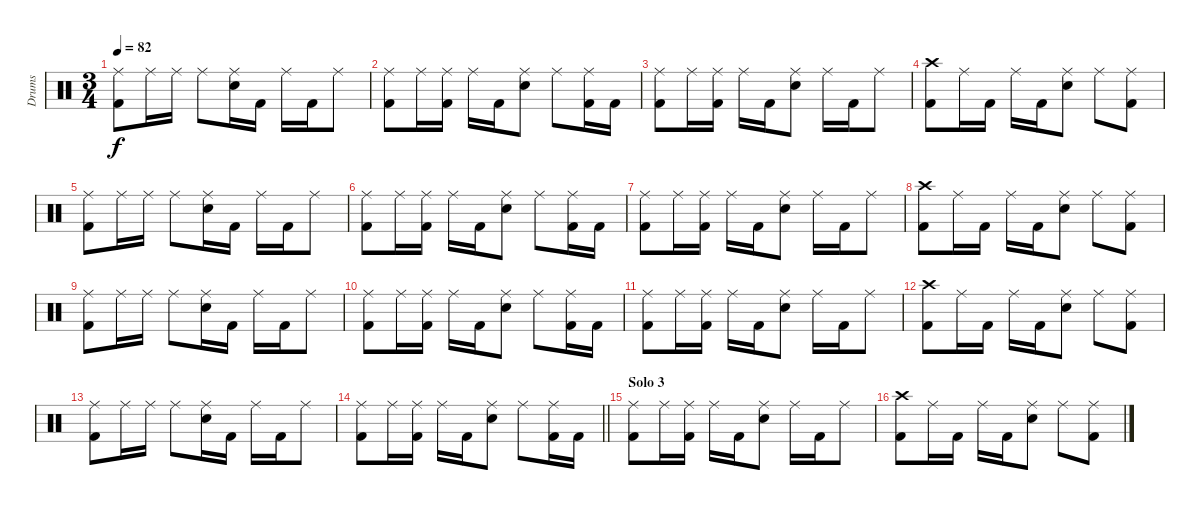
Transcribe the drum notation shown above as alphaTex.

\track ("Drums" "Drums") {instrument percussion}
\staff {score}
\articulation defaults
\ts (3 4)
\tempo 82
\clef neutral
\ks c
("Ride (middle)" "Kick (hit) 2").8{dy f} "Ride (middle)".16 "Ride (middle)".16 "Ride (middle)".8 ("Ride (middle)" "Electric Snare (hit)").16 "Kick (hit) 2".16 "Ride (middle)".16 "Kick (hit) 2".16 "Ride (middle)".8 |
("Ride (middle)" "Kick (hit) 2").8 "Ride (middle)".16 ("Ride (middle)" "Kick (hit) 2").16 "Ride (middle)".16 "Kick (hit) 2".16 ("Ride (middle)" "Electric Snare (hit)").8 "Ride (middle)".8 ("Ride (middle)" "Kick (hit) 2").16 "Kick (hit) 2".16 |
("Ride (middle)" "Kick (hit) 2").8 "Ride (middle)".16 ("Ride (middle)" "Kick (hit) 2").16 "Ride (middle)".16 "Kick (hit) 2".16 ("Ride (middle)" "Electric Snare (hit)").8 "Ride (middle)".16 "Kick (hit) 2".16 "Ride (middle)".8 |
("Crash high (hit)" "Kick (hit) 2").8 "Ride (middle)".16 "Kick (hit) 2".16 "Ride (middle)".16 "Kick (hit) 2".16 ("Ride (middle)" "Electric Snare (hit)").8 "Ride (middle)".8 ("Ride (middle)" "Kick (hit) 2").8 |
("Ride (middle)" "Kick (hit) 2").8 "Ride (middle)".16 "Ride (middle)".16 "Ride (middle)".8 ("Ride (middle)" "Electric Snare (hit)").16 "Kick (hit) 2".16 "Ride (middle)".16 "Kick (hit) 2".16 "Ride (middle)".8 |
("Ride (middle)" "Kick (hit) 2").8 "Ride (middle)".16 ("Ride (middle)" "Kick (hit) 2").16 "Ride (middle)".16 "Kick (hit) 2".16 ("Ride (middle)" "Electric Snare (hit)").8 "Ride (middle)".8 ("Ride (middle)" "Kick (hit) 2").16 "Kick (hit) 2".16 |
("Ride (middle)" "Kick (hit) 2").8 "Ride (middle)".16 ("Ride (middle)" "Kick (hit) 2").16 "Ride (middle)".16 "Kick (hit) 2".16 ("Ride (middle)" "Electric Snare (hit)").8 "Ride (middle)".16 "Kick (hit) 2".16 "Ride (middle)".8 |
("Crash high (hit)" "Kick (hit) 2").8 "Ride (middle)".16 "Kick (hit) 2".16 "Ride (middle)".16 "Kick (hit) 2".16 ("Ride (middle)" "Electric Snare (hit)").8 "Ride (middle)".8 ("Ride (middle)" "Kick (hit) 2").8 |
("Ride (middle)" "Kick (hit) 2").8 "Ride (middle)".16 "Ride (middle)".16 "Ride (middle)".8 ("Ride (middle)" "Electric Snare (hit)").16 "Kick (hit) 2".16 "Ride (middle)".16 "Kick (hit) 2".16 "Ride (middle)".8 |
("Ride (middle)" "Kick (hit) 2").8 "Ride (middle)".16 ("Ride (middle)" "Kick (hit) 2").16 "Ride (middle)".16 "Kick (hit) 2".16 ("Ride (middle)" "Electric Snare (hit)").8 "Ride (middle)".8 ("Ride (middle)" "Kick (hit) 2").16 "Kick (hit) 2".16 |
("Ride (middle)" "Kick (hit) 2").8 "Ride (middle)".16 ("Ride (middle)" "Kick (hit) 2").16 "Ride (middle)".16 "Kick (hit) 2".16 ("Ride (middle)" "Electric Snare (hit)").8 "Ride (middle)".16 "Kick (hit) 2".16 "Ride (middle)".8 |
("Crash high (hit)" "Kick (hit) 2").8 "Ride (middle)".16 "Kick (hit) 2".16 "Ride (middle)".16 "Kick (hit) 2".16 ("Ride (middle)" "Electric Snare (hit)").8 "Ride (middle)".8 ("Ride (middle)" "Kick (hit) 2").8 |
("Ride (middle)" "Kick (hit) 2").8 "Ride (middle)".16 "Ride (middle)".16 "Ride (middle)".8 ("Ride (middle)" "Electric Snare (hit)").16 "Kick (hit) 2".16 "Ride (middle)".16 "Kick (hit) 2".16 "Ride (middle)".8 |
\barLineRight lightlight
("Ride (middle)" "Kick (hit) 2").8 "Ride (middle)".16 ("Ride (middle)" "Kick (hit) 2").16 "Ride (middle)".16 "Kick (hit) 2".16 ("Ride (middle)" "Electric Snare (hit)").8 "Ride (middle)".8 ("Ride (middle)" "Kick (hit) 2").16 "Kick (hit) 2".16 |
\section ("" "Solo 3")
("Ride (middle)" "Kick (hit) 2").8 "Ride (middle)".16 ("Ride (middle)" "Kick (hit) 2").16 "Ride (middle)".16 "Kick (hit) 2".16 ("Ride (middle)" "Electric Snare (hit)").8 "Ride (middle)".16 "Kick (hit) 2".16 "Ride (middle)".8 |
("Crash high (hit)" "Kick (hit) 2").8 "Ride (middle)".16 "Kick (hit) 2".16 "Ride (middle)".16 "Kick (hit) 2".16 ("Ride (middle)" "Electric Snare (hit)").8 "Ride (middle)".8 ("Ride (middle)" "Kick (hit) 2").8
